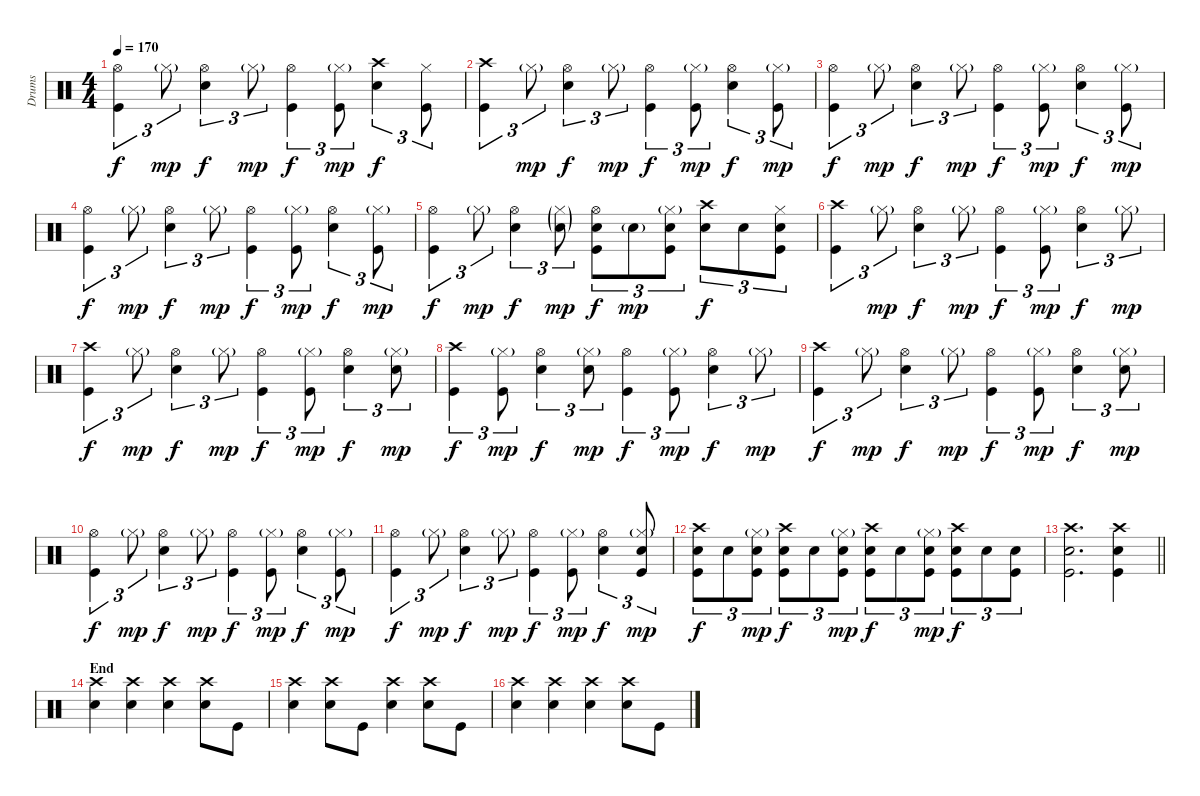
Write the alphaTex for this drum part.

\track ("Drums" "Drums") {instrument percussion}
\staff {score}
\articulation defaults
\ts (4 4)
\tempo 170
\clef neutral
\ks c
("Hi-Hat (open)" "Kick (hit)").4{tu (3 2) dy f} "Hi-Hat (closed)"{g}.8{tu (3 2) dy mp} ("Hi-Hat (open)" "Snare (hit) 2").4{tu (3 2) dy f} "Hi-Hat (closed)"{g}.8{tu (3 2) dy mp} ("Hi-Hat (open)" "Kick (hit)").4{tu (3 2) dy f} ("Hi-Hat (closed)"{g} "Kick (hit)").8{tu (3 2) dy mp} ("Crash high (hit)" "Snare (hit) 2").4{tu (3 2) dy f} ("Hi-Hat (closed)" "Kick (hit)").8{tu (3 2)} |
("Crash high (hit)" "Kick (hit)").4{tu (3 2)} "Hi-Hat (closed)"{g}.8{tu (3 2) dy mp} ("Hi-Hat (open)" "Snare (hit) 2").4{tu (3 2) dy f} "Hi-Hat (closed)"{g}.8{tu (3 2) dy mp} ("Hi-Hat (open)" "Kick (hit)").4{tu (3 2) dy f} ("Hi-Hat (closed)"{g} "Kick (hit)").8{tu (3 2) dy mp} ("Hi-Hat (open)" "Snare (hit) 2").4{tu (3 2) dy f} ("Hi-Hat (closed)"{g} "Kick (hit)").8{tu (3 2) dy mp} |
("Hi-Hat (open)" "Kick (hit)").4{tu (3 2) dy f} "Hi-Hat (closed)"{g}.8{tu (3 2) dy mp} ("Hi-Hat (open)" "Snare (hit) 2").4{tu (3 2) dy f} "Hi-Hat (closed)"{g}.8{tu (3 2) dy mp} ("Hi-Hat (open)" "Kick (hit)").4{tu (3 2) dy f} ("Hi-Hat (closed)"{g} "Kick (hit)").8{tu (3 2) dy mp} ("Hi-Hat (open)" "Snare (hit) 2").4{tu (3 2) dy f} ("Hi-Hat (closed)"{g} "Kick (hit)").8{tu (3 2) dy mp} |
("Hi-Hat (open)" "Kick (hit)").4{tu (3 2) dy f} "Hi-Hat (closed)"{g}.8{tu (3 2) dy mp} ("Hi-Hat (open)" "Snare (hit) 2").4{tu (3 2) dy f} "Hi-Hat (closed)"{g}.8{tu (3 2) dy mp} ("Hi-Hat (open)" "Kick (hit)").4{tu (3 2) dy f} ("Hi-Hat (closed)"{g} "Kick (hit)").8{tu (3 2) dy mp} ("Hi-Hat (open)" "Snare (hit) 2").4{tu (3 2) dy f} ("Hi-Hat (closed)"{g} "Kick (hit)").8{tu (3 2) dy mp} |
("Hi-Hat (open)" "Kick (hit)").4{tu (3 2) dy f} "Hi-Hat (closed)"{g}.8{tu (3 2) dy mp} ("Hi-Hat (open)" "Snare (hit) 2").4{tu (3 2) dy f} ("Hi-Hat (closed)"{g} "Snare (hit) 2"{g}).8{tu (3 2) dy mp} ("Hi-Hat (open)" "Snare (hit) 2" "Kick (hit)").8{tu (3 2) dy f} "Snare (hit) 2"{g}.8{tu (3 2) dy mp} ("Hi-Hat (closed)"{g} "Snare (hit) 2" "Kick (hit)").8{tu (3 2)} ("Crash high (hit)" "Snare (hit) 2").8{tu (3 2) dy f} "Snare (hit) 2".8{tu (3 2)} ("Hi-Hat (closed)" "Snare (hit) 2" "Kick (hit)").8{tu (3 2)} |
("Crash high (hit)" "Kick (hit)").4{tu (3 2)} "Hi-Hat (closed)"{g}.8{tu (3 2) dy mp} ("Hi-Hat (open)" "Snare (hit) 2").4{tu (3 2) dy f} "Hi-Hat (closed)"{g}.8{tu (3 2) dy mp} ("Hi-Hat (open)" "Kick (hit)").4{tu (3 2) dy f} ("Hi-Hat (closed)"{g} "Kick (hit)").8{tu (3 2) dy mp} ("Hi-Hat (open)" "Snare (hit) 2").4{tu (3 2) dy f} "Hi-Hat (closed)"{g}.8{tu (3 2) dy mp} |
("Crash high (hit)" "Kick (hit)").4{tu (3 2) dy f} "Hi-Hat (closed)"{g}.8{tu (3 2) dy mp} ("Hi-Hat (open)" "Snare (hit) 2").4{tu (3 2) dy f} "Hi-Hat (closed)"{g}.8{tu (3 2) dy mp} ("Hi-Hat (open)" "Kick (hit)").4{tu (3 2) dy f} ("Hi-Hat (closed)"{g} "Kick (hit)").8{tu (3 2) dy mp} ("Hi-Hat (open)" "Snare (hit) 2").4{tu (3 2) dy f} ("Hi-Hat (closed)"{g} "Snare (hit) 2").8{tu (3 2) dy mp} |
("Crash high (hit)" "Kick (hit)").4{tu (3 2) dy f} ("Hi-Hat (closed)"{g} "Kick (hit)").8{tu (3 2) dy mp} ("Hi-Hat (open)" "Snare (hit) 2").4{tu (3 2) dy f} ("Hi-Hat (closed)"{g} "Snare (hit) 2").8{tu (3 2) dy mp} ("Hi-Hat (open)" "Kick (hit)").4{tu (3 2) dy f} ("Hi-Hat (closed)"{g} "Kick (hit)").8{tu (3 2) dy mp} ("Hi-Hat (open)" "Snare (hit) 2").4{tu (3 2) dy f} "Hi-Hat (closed)"{g}.8{tu (3 2) dy mp} |
("Crash high (hit)" "Kick (hit)").4{tu (3 2) dy f} "Hi-Hat (closed)"{g}.8{tu (3 2) dy mp} ("Hi-Hat (open)" "Snare (hit) 2").4{tu (3 2) dy f} "Hi-Hat (closed)"{g}.8{tu (3 2) dy mp} ("Hi-Hat (open)" "Kick (hit)").4{tu (3 2) dy f} ("Hi-Hat (closed)"{g} "Kick (hit)").8{tu (3 2) dy mp} ("Hi-Hat (open)" "Snare (hit) 2").4{tu (3 2) dy f} ("Hi-Hat (closed)"{g} "Snare (hit) 2").8{tu (3 2) dy mp} |
("Hi-Hat (open)" "Kick (hit)").4{tu (3 2) dy f} "Hi-Hat (closed)"{g}.8{tu (3 2) dy mp} ("Hi-Hat (open)" "Snare (hit) 2").4{tu (3 2) dy f} "Hi-Hat (closed)"{g}.8{tu (3 2) dy mp} ("Hi-Hat (open)" "Kick (hit)").4{tu (3 2) dy f} ("Hi-Hat (closed)"{g} "Kick (hit)").8{tu (3 2) dy mp} ("Hi-Hat (open)" "Snare (hit) 2").4{tu (3 2) dy f} ("Hi-Hat (closed)"{g} "Kick (hit)").8{tu (3 2) dy mp} |
("Hi-Hat (open)" "Kick (hit)").4{tu (3 2) dy f} "Hi-Hat (closed)"{g}.8{tu (3 2) dy mp} ("Hi-Hat (open)" "Snare (hit) 2").4{tu (3 2) dy f} "Hi-Hat (closed)"{g}.8{tu (3 2) dy mp} ("Hi-Hat (open)" "Kick (hit)").4{tu (3 2) dy f} ("Hi-Hat (closed)"{g} "Kick (hit)").8{tu (3 2) dy mp} ("Hi-Hat (open)" "Snare (hit) 2").4{tu (3 2) dy f} ("Hi-Hat (closed)"{g} "Snare (hit) 2" "Kick (hit)").8{tu (3 2) dy mp} |
("Crash high (hit)" "Snare (hit) 2" "Kick (hit)").8{tu (3 2) dy f} "Snare (hit) 2".8{tu (3 2)} ("Hi-Hat (closed)"{g} "Snare (hit) 2" "Kick (hit)").8{tu (3 2) dy mp} ("Crash high (hit)" "Snare (hit) 2" "Kick (hit)").8{tu (3 2) dy f} "Snare (hit) 2".8{tu (3 2)} ("Hi-Hat (closed)"{g} "Snare (hit) 2" "Kick (hit)").8{tu (3 2) dy mp} ("Crash high (hit)" "Snare (hit) 2" "Kick (hit)").8{tu (3 2) dy f} "Snare (hit) 2".8{tu (3 2)} ("Hi-Hat (closed)"{g} "Snare (hit) 2" "Kick (hit)").8{tu (3 2) dy mp} ("Crash high (hit)" "Snare (hit) 2" "Kick (hit)").8{tu (3 2) dy f} "Snare (hit) 2".8{tu (3 2)} ("Snare (hit) 2" "Kick (hit)").8{tu (3 2)} |
\barLineRight lightlight
("Crash high (hit)" "Snare (hit) 2" "Kick (hit)").2{d} ("Crash high (hit)" "Snare (hit) 2" "Kick (hit)").4 |
\section ("" "End")
("Crash high (hit)" "Snare (hit) 2").4 ("Crash high (hit)" "Snare (hit) 2").4 ("Crash high (hit)" "Snare (hit) 2").4 ("Crash high (hit)" "Snare (hit) 2").8 "Kick (hit)".8 |
("Crash high (hit)" "Snare (hit) 2").4 ("Crash high (hit)" "Snare (hit) 2").8 "Kick (hit)".8 ("Crash high (hit)" "Snare (hit) 2").4 ("Crash high (hit)" "Snare (hit) 2").8 "Kick (hit)".8 |
("Crash high (hit)" "Snare (hit) 2").4 ("Crash high (hit)" "Snare (hit) 2").4 ("Crash high (hit)" "Snare (hit) 2").4 ("Crash high (hit)" "Snare (hit) 2").8 "Kick (hit)".8
